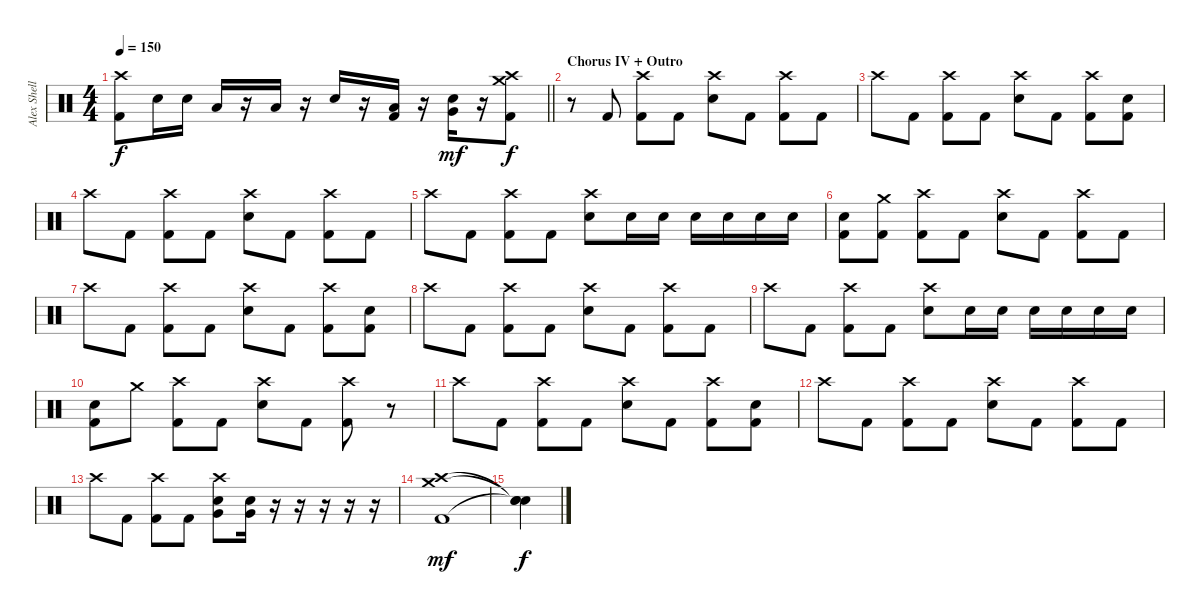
\track ("Alex Shellnutt" "Alex Shell") {instrument percussion}
\staff {score}
\articulation defaults
\ts (4 4)
\tempo 150
\clef neutral
\barLineRight lightlight
\ks c
("Crash high (hit)" "Kick (hit) 2").8{dy f} "Snare (hit) 2".16 "Snare (hit) 2".16 "Low Tom (hit)".16 r.16 "Low Floor Tom (hit)".16 r.16 "Snare (hit) 2".16 r.16 ("Low Floor Tom (hit)" "Kick (hit) 2").16 r.16 ("Very Low Tom (hit)" "Snare (hit) 2").16{dy mf} r.16 ("Crash medium (hit)" "Crash high (hit)" "Kick (hit) 2").8{dy f} |
\section ("" "Chorus IV + Outro")
r.8 "Kick (hit) 2".8 ("Crash high (hit)" "Kick (hit) 2").8 "Kick (hit) 2".8 ("Crash high (hit)" "Snare (hit) 2").8 "Kick (hit) 2".8 ("Crash high (hit)" "Kick (hit) 2").8 "Kick (hit) 2".8 |
"Crash high (hit)".8 "Kick (hit) 2".8 ("Crash high (hit)" "Kick (hit) 2").8 "Kick (hit) 2".8 ("Crash high (hit)" "Snare (hit) 2").8 "Kick (hit) 2".8 ("Crash high (hit)" "Kick (hit) 2").8 ("Snare (hit) 2" "Kick (hit) 2").8 |
"Crash high (hit)".8 "Kick (hit) 2".8 ("Crash high (hit)" "Kick (hit) 2").8 "Kick (hit) 2".8 ("Crash high (hit)" "Snare (hit) 2").8 "Kick (hit) 2".8 ("Crash high (hit)" "Kick (hit) 2").8 "Kick (hit) 2".8 |
"Crash high (hit)".8 "Kick (hit) 2".8 ("Crash high (hit)" "Kick (hit) 2").8 "Kick (hit) 2".8 ("Crash high (hit)" "Snare (hit) 2").8 "Snare (hit) 2".16 "Snare (hit) 2".16 "Snare (hit) 2".16 "Snare (hit) 2".16 "Snare (hit) 2".16 "Snare (hit) 2".16 |
("Snare (hit) 2" "Kick (hit) 2").8 ("Crash medium (hit)" "Kick (hit) 2").8 ("Crash high (hit)" "Kick (hit) 2").8 "Kick (hit) 2".8 ("Crash high (hit)" "Snare (hit) 2").8 "Kick (hit) 2".8 ("Crash high (hit)" "Kick (hit) 2").8 "Kick (hit) 2".8 |
"Crash high (hit)".8 "Kick (hit) 2".8 ("Crash high (hit)" "Kick (hit) 2").8 "Kick (hit) 2".8 ("Crash high (hit)" "Snare (hit) 2").8 "Kick (hit) 2".8 ("Crash high (hit)" "Kick (hit) 2").8 ("Snare (hit) 2" "Kick (hit) 2").8 |
"Crash high (hit)".8 "Kick (hit) 2".8 ("Crash high (hit)" "Kick (hit) 2").8 "Kick (hit) 2".8 ("Crash high (hit)" "Snare (hit) 2").8 "Kick (hit) 2".8 ("Crash high (hit)" "Kick (hit) 2").8 "Kick (hit) 2".8 |
"Crash high (hit)".8 "Kick (hit) 2".8 ("Crash high (hit)" "Kick (hit) 2").8 "Kick (hit) 2".8 ("Crash high (hit)" "Snare (hit) 2").8 "Snare (hit) 2".16 "Snare (hit) 2".16 "Snare (hit) 2".16 "Snare (hit) 2".16 "Snare (hit) 2".16 "Snare (hit) 2".16 |
("Snare (hit) 2" "Kick (hit) 2").8 "Crash medium (hit)".8 ("Crash high (hit)" "Kick (hit) 2").8 "Kick (hit) 2".8 ("Crash high (hit)" "Snare (hit) 2").8 "Kick (hit) 2".8 ("Crash high (hit)" "Kick (hit) 2").8 r.8 |
"Crash high (hit)".8 "Kick (hit) 2".8 ("Crash high (hit)" "Kick (hit) 2").8 "Kick (hit) 2".8 ("Crash high (hit)" "Snare (hit) 2").8 "Kick (hit) 2".8 ("Crash high (hit)" "Kick (hit) 2").8 ("Snare (hit) 2" "Kick (hit) 2").8 |
"Crash high (hit)".8 "Kick (hit) 2".8 ("Crash high (hit)" "Kick (hit) 2").8 "Kick (hit) 2".8 ("Crash high (hit)" "Snare (hit) 2").8 "Kick (hit) 2".8 ("Crash high (hit)" "Kick (hit) 2").8 "Kick (hit) 2".8 |
"Crash high (hit)".8 "Kick (hit) 2".8 ("Crash high (hit)" "Kick (hit) 2").8 "Kick (hit) 2".8 ("Crash high (hit)" "Very Low Tom (hit)" "Snare (hit) 2").8 ("Very Low Tom (hit)" "Snare (hit) 2").16 r.16 r.16 r.16 r.16 r.16 |
("Crash medium (hit)" "Crash high (hit)" "Kick (hit) 2").1{dy mf} |
("Snare (hit)"{t} "Snare (hit)"{t} "Snare (hit)"{t}).4{dy f}
